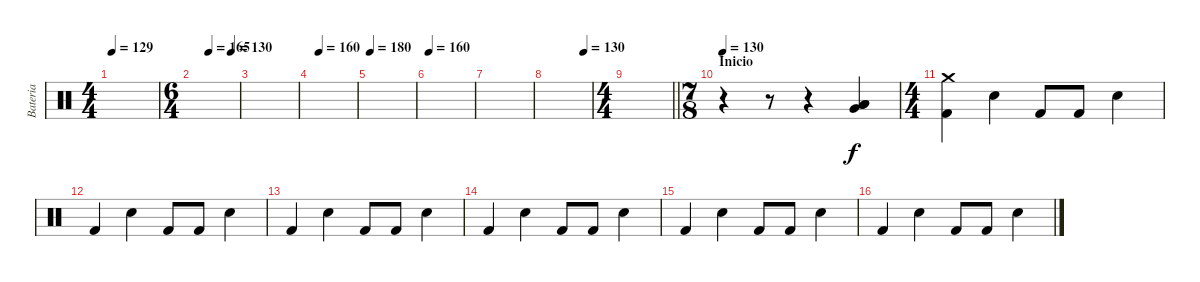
\track ("Bateria" "Bateria") {instrument percussion}
\staff {score}
\articulation defaults
\ts (4 4)
\tempo 129
\tempo 140
\tempo 129
\clef neutral
\ks c
|
\ts (6 4)
\tempo (165 0.3333333333333333)
\tempo (130 0.8333333333333334)
|
|
\tempo (160 0.16666666666666666)
|
\tempo 180
|
\tempo 160
|
|
\tempo (130 0.8333333333333334)
|
\ts (4 4)
\barLineRight lightlight
|
\ts (7 8)
\section ("" "Inicio")
\tempo 130
r.4 r.8 r.4 ("Very Low Tom (hit)" "Low Floor Tom (hit)" "Low Tom (hit)").4 |
\ts (4 4)
("Crash medium (hit)" "Kick (hit) 2").4{dy f} "Electric Snare (hit)".4 "Kick (hit) 2".8 "Kick (hit) 2".8 "Electric Snare (hit)".4 |
"Kick (hit) 2".4 "Electric Snare (hit)".4 "Kick (hit) 2".8 "Kick (hit) 2".8 "Electric Snare (hit)".4 |
"Kick (hit) 2".4 "Electric Snare (hit)".4 "Kick (hit) 2".8 "Kick (hit) 2".8 "Electric Snare (hit)".4 |
"Kick (hit) 2".4 "Electric Snare (hit)".4 "Kick (hit) 2".8 "Kick (hit) 2".8 "Electric Snare (hit)".4 |
"Kick (hit) 2".4 "Electric Snare (hit)".4 "Kick (hit) 2".8 "Kick (hit) 2".8 "Electric Snare (hit)".4 |
"Kick (hit) 2".4 "Electric Snare (hit)".4 "Kick (hit) 2".8 "Kick (hit) 2".8 "Electric Snare (hit)".4
